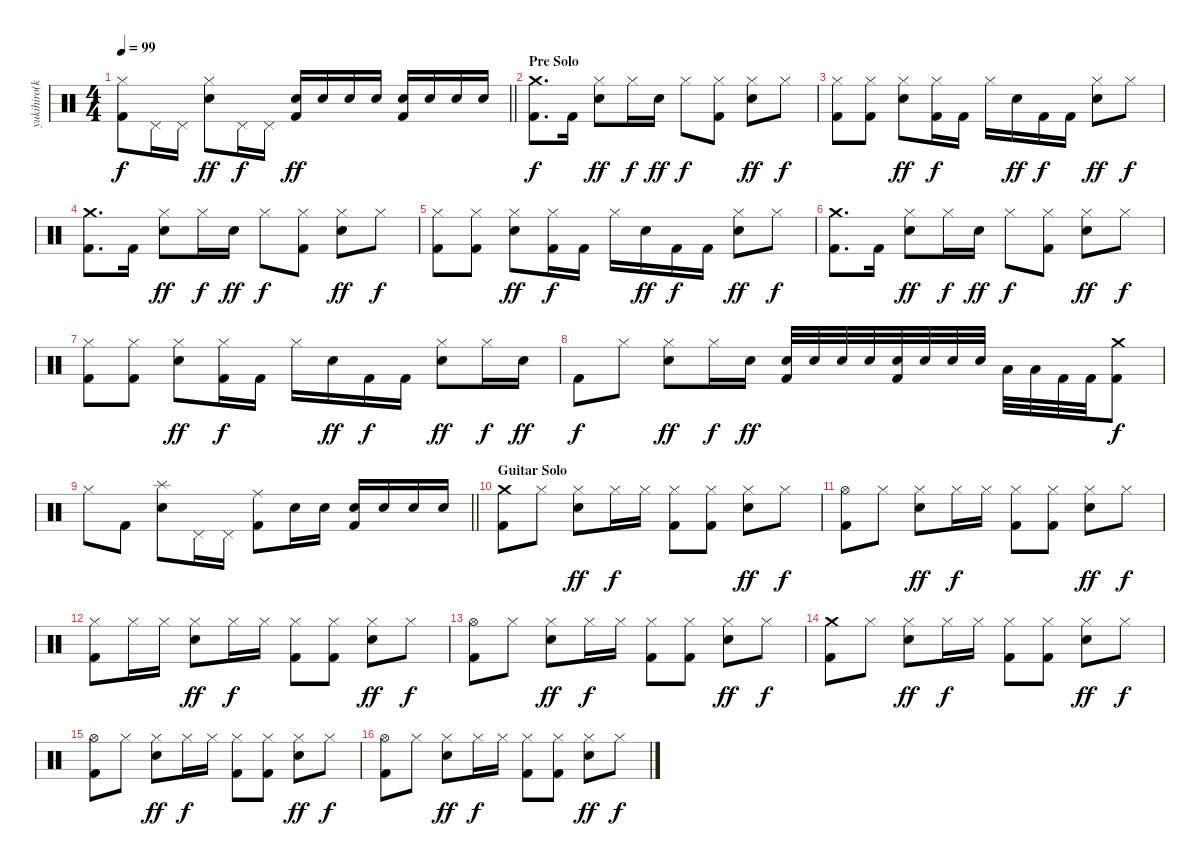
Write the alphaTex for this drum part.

\track ("yukihiro(kami)" "yukihiro(k") {instrument percussion}
\staff {score}
\articulation defaults
\ts (4 4)
\tempo 99
\clef neutral
\barLineRight lightlight
\ks c
("Hi-Hat (closed)" "Kick (hit) 2").8{dy f} "Pedal Hi-Hat (hit)".16 "Pedal Hi-Hat (hit)".16 ("Hi-Hat (closed)" "Snare (hit) 2").8{dy ff} "Pedal Hi-Hat (hit)".16{dy f} "Pedal Hi-Hat (hit)".16 ("Snare (hit) 2" "Kick (hit) 2").16{dy ff} "Snare (hit) 2".16 "Snare (hit) 2".16 "Snare (hit) 2".16 ("Snare (hit) 2" "Kick (hit) 2").16 "Snare (hit) 2".16 "Snare (hit) 2".16 "Snare (hit) 2".16 |
\section ("" "Pre Solo")
("Crash medium (hit)" "Kick (hit) 2").8{d dy f} "Kick (hit) 2".16 ("Hi-Hat (closed)" "Snare (hit) 2").8{dy ff} "Hi-Hat (closed)".16{dy f} "Snare (hit) 2".16{dy ff} "Hi-Hat (closed)".8{dy f} ("Hi-Hat (closed)" "Kick (hit) 2").8 ("Hi-Hat (closed)" "Snare (hit) 2").8{dy ff} "Hi-Hat (closed)".8{dy f} |
("Hi-Hat (closed)" "Kick (hit) 2").8 ("Hi-Hat (closed)" "Kick (hit) 2").8 ("Hi-Hat (closed)" "Snare (hit) 2").8{dy ff} ("Hi-Hat (closed)" "Kick (hit) 2").16{dy f} "Kick (hit) 2".16 "Hi-Hat (closed)".16 "Snare (hit) 2".16{dy ff} "Kick (hit) 2".16{dy f} "Kick (hit) 2".16 ("Hi-Hat (closed)" "Snare (hit) 2").8{dy ff} "Hi-Hat (closed)".8{dy f} |
("Crash medium (hit)" "Kick (hit) 2").8{d} "Kick (hit) 2".16 ("Hi-Hat (closed)" "Snare (hit) 2").8{dy ff} "Hi-Hat (closed)".16{dy f} "Snare (hit) 2".16{dy ff} "Hi-Hat (closed)".8{dy f} ("Hi-Hat (closed)" "Kick (hit) 2").8 ("Hi-Hat (closed)" "Snare (hit) 2").8{dy ff} "Hi-Hat (closed)".8{dy f} |
("Hi-Hat (closed)" "Kick (hit) 2").8 ("Hi-Hat (closed)" "Kick (hit) 2").8 ("Hi-Hat (closed)" "Snare (hit) 2").8{dy ff} ("Hi-Hat (closed)" "Kick (hit) 2").16{dy f} "Kick (hit) 2".16 "Hi-Hat (closed)".16 "Snare (hit) 2".16{dy ff} "Kick (hit) 2".16{dy f} "Kick (hit) 2".16 ("Hi-Hat (closed)" "Snare (hit) 2").8{dy ff} "Hi-Hat (closed)".8{dy f} |
("Crash medium (hit)" "Kick (hit) 2").8{d} "Kick (hit) 2".16 ("Hi-Hat (closed)" "Snare (hit) 2").8{dy ff} "Hi-Hat (closed)".16{dy f} "Snare (hit) 2".16{dy ff} "Hi-Hat (closed)".8{dy f} ("Hi-Hat (closed)" "Kick (hit) 2").8 ("Hi-Hat (closed)" "Snare (hit) 2").8{dy ff} "Hi-Hat (closed)".8{dy f} |
("Hi-Hat (closed)" "Kick (hit) 2").8 ("Hi-Hat (closed)" "Kick (hit) 2").8 ("Hi-Hat (closed)" "Snare (hit) 2").8{dy ff} ("Hi-Hat (closed)" "Kick (hit) 2").16{dy f} "Kick (hit) 2".16 "Hi-Hat (closed)".16 "Snare (hit) 2".16{dy ff} "Kick (hit) 2".16{dy f} "Kick (hit) 2".16 ("Hi-Hat (closed)" "Snare (hit) 2").8{dy ff} "Hi-Hat (closed)".16{dy f} "Snare (hit) 2".16{dy ff} |
"Kick (hit) 2".8{dy f} "Hi-Hat (closed)".8 ("Hi-Hat (closed)" "Snare (hit) 2").8{dy ff} "Hi-Hat (closed)".16{dy f} "Snare (hit) 2".16{dy ff} ("Snare (hit) 2" "Kick (hit) 2").32 "Snare (hit) 2".32 "Snare (hit) 2".32 "Snare (hit) 2".32 ("Snare (hit) 2" "Kick (hit) 2").32 "Snare (hit) 2".32 "Snare (hit) 2".32 "Snare (hit) 2".32 "Low Tom (hit)".32 "Low Tom (hit)".32 "Kick (hit) 2".32 "Kick (hit) 2".32 ("Crash medium (hit)" "Kick (hit) 2").8{dy f} |
\barLineRight lightlight "Hi-Hat (closed)".8 "Kick (hit) 2".8
("Splash (hit)" "Snare (hit) 2").8 "Pedal Hi-Hat (hit)".16 "Pedal Hi-Hat (hit)".16 ("Ride (middle)" "Kick (hit) 2").8 "Snare (hit) 2".16 "Snare (hit) 2".16 ("Snare (hit) 2" "Kick (hit) 2").16 "Snare (hit) 2".16 "Snare (hit) 2".16 "Snare (hit) 2".16 |
\section ("" "Guitar Solo")
("Crash medium (hit)" "Kick (hit) 2").8 "Hi-Hat (closed)".8 ("Hi-Hat (closed)" "Snare (hit) 2").8{dy ff} "Hi-Hat (closed)".16{dy f} "Hi-Hat (closed)".16 ("Hi-Hat (closed)" "Kick (hit) 2").8 ("Hi-Hat (closed)" "Kick (hit) 2").8 ("Hi-Hat (closed)" "Snare (hit) 2").8{dy ff} "Hi-Hat (closed)".8{dy f} |
("Hi-Hat (open)" "Kick (hit) 2").8 "Hi-Hat (closed)".8 ("Hi-Hat (closed)" "Snare (hit) 2").8{dy ff} "Hi-Hat (closed)".16{dy f} "Hi-Hat (closed)".16 ("Hi-Hat (closed)" "Kick (hit) 2").8 ("Hi-Hat (closed)" "Kick (hit) 2").8 ("Hi-Hat (closed)" "Snare (hit) 2").8{dy ff} "Hi-Hat (closed)".8{dy f} |
("Hi-Hat (closed)" "Kick (hit) 2").8 "Hi-Hat (closed)".16 "Hi-Hat (closed)".16 ("Hi-Hat (closed)" "Snare (hit) 2").8{dy ff} "Hi-Hat (closed)".16{dy f} "Hi-Hat (closed)".16 ("Hi-Hat (closed)" "Kick (hit) 2").8 ("Hi-Hat (closed)" "Kick (hit) 2").8 ("Hi-Hat (closed)" "Snare (hit) 2").8{dy ff} "Hi-Hat (closed)".8{dy f} |
("Hi-Hat (open)" "Kick (hit) 2").8 "Hi-Hat (closed)".8 ("Hi-Hat (closed)" "Snare (hit) 2").8{dy ff} "Hi-Hat (closed)".16{dy f} "Hi-Hat (closed)".16 ("Hi-Hat (closed)" "Kick (hit) 2").8 ("Hi-Hat (closed)" "Kick (hit) 2").8 ("Hi-Hat (closed)" "Snare (hit) 2").8{dy ff} "Hi-Hat (closed)".8{dy f} |
("Crash medium (hit)" "Kick (hit) 2").8 "Hi-Hat (closed)".8 ("Hi-Hat (closed)" "Snare (hit) 2").8{dy ff} "Hi-Hat (closed)".16{dy f} "Hi-Hat (closed)".16 ("Hi-Hat (closed)" "Kick (hit) 2").8 ("Hi-Hat (closed)" "Kick (hit) 2").8 ("Hi-Hat (closed)" "Snare (hit) 2").8{dy ff} "Hi-Hat (closed)".8{dy f} |
("Hi-Hat (open)" "Kick (hit) 2").8 "Hi-Hat (closed)".8 ("Hi-Hat (closed)" "Snare (hit) 2").8{dy ff} "Hi-Hat (closed)".16{dy f} "Hi-Hat (closed)".16 ("Hi-Hat (closed)" "Kick (hit) 2").8 ("Hi-Hat (closed)" "Kick (hit) 2").8 ("Hi-Hat (closed)" "Snare (hit) 2").8{dy ff} "Hi-Hat (closed)".8{dy f} |
("Hi-Hat (open)" "Kick (hit) 2").8 "Hi-Hat (closed)".8 ("Hi-Hat (closed)" "Snare (hit) 2").8{dy ff} "Hi-Hat (closed)".16{dy f} "Hi-Hat (closed)".16 ("Hi-Hat (closed)" "Kick (hit) 2").8 ("Hi-Hat (closed)" "Kick (hit) 2").8 ("Hi-Hat (closed)" "Snare (hit) 2").8{dy ff} "Hi-Hat (closed)".8{dy f}
